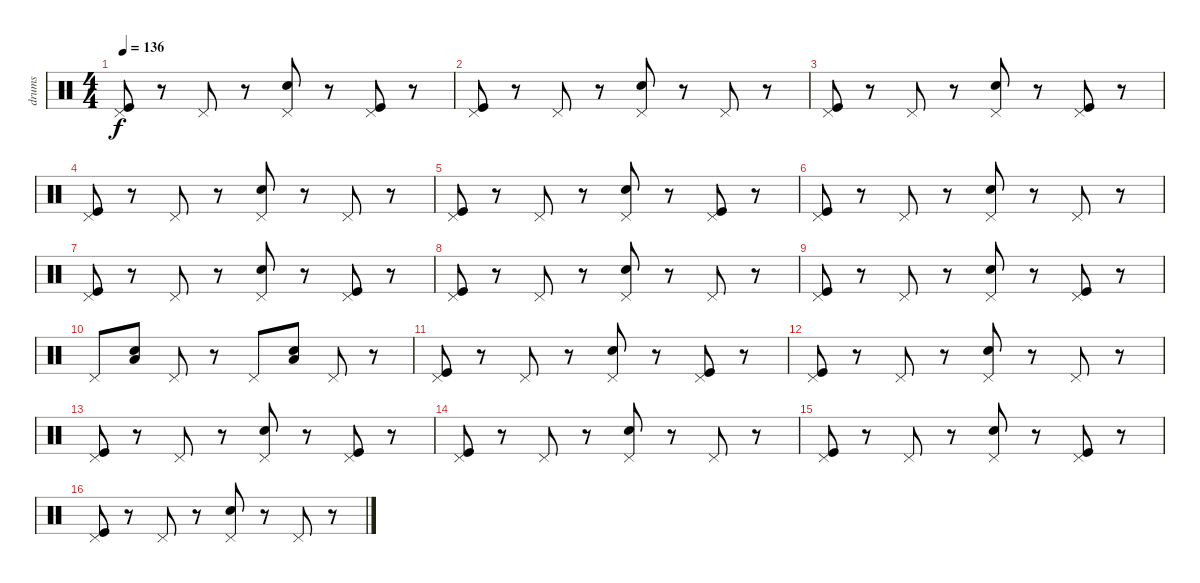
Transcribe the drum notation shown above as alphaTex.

\track ("drums" "drums") {instrument percussion}
\staff {score}
\articulation defaults
\ts (4 4)
\tempo 136
\clef neutral
\ks c
("Kick (hit)" "Pedal Hi-Hat (hit)").8{dy f} r.8 "Pedal Hi-Hat (hit)".8 r.8 ("Snare (hit) 2" "Pedal Hi-Hat (hit)").8 r.8 ("Kick (hit)" "Pedal Hi-Hat (hit)").8 r.8 |
("Kick (hit)" "Pedal Hi-Hat (hit)").8 r.8 "Pedal Hi-Hat (hit)".8 r.8 ("Snare (hit) 2" "Pedal Hi-Hat (hit)").8 r.8 "Pedal Hi-Hat (hit)".8 r.8 |
("Kick (hit)" "Pedal Hi-Hat (hit)").8 r.8 "Pedal Hi-Hat (hit)".8 r.8 ("Snare (hit) 2" "Pedal Hi-Hat (hit)").8 r.8 ("Kick (hit)" "Pedal Hi-Hat (hit)").8 r.8 |
("Kick (hit)" "Pedal Hi-Hat (hit)").8 r.8 "Pedal Hi-Hat (hit)".8 r.8 ("Snare (hit) 2" "Pedal Hi-Hat (hit)").8 r.8 "Pedal Hi-Hat (hit)".8 r.8 |
("Kick (hit)" "Pedal Hi-Hat (hit)").8 r.8 "Pedal Hi-Hat (hit)".8 r.8 ("Snare (hit) 2" "Pedal Hi-Hat (hit)").8 r.8 ("Kick (hit)" "Pedal Hi-Hat (hit)").8 r.8 |
("Kick (hit)" "Pedal Hi-Hat (hit)").8 r.8 "Pedal Hi-Hat (hit)".8 r.8 ("Snare (hit) 2" "Pedal Hi-Hat (hit)").8 r.8 "Pedal Hi-Hat (hit)".8 r.8 |
("Kick (hit)" "Pedal Hi-Hat (hit)").8 r.8 "Pedal Hi-Hat (hit)".8 r.8 ("Snare (hit) 2" "Pedal Hi-Hat (hit)").8 r.8 ("Kick (hit)" "Pedal Hi-Hat (hit)").8 r.8 |
("Kick (hit)" "Pedal Hi-Hat (hit)").8 r.8 "Pedal Hi-Hat (hit)".8 r.8 ("Snare (hit) 2" "Pedal Hi-Hat (hit)").8 r.8 "Pedal Hi-Hat (hit)".8 r.8 |
("Kick (hit)" "Pedal Hi-Hat (hit)").8 r.8 "Pedal Hi-Hat (hit)".8 r.8 ("Snare (hit) 2" "Pedal Hi-Hat (hit)").8 r.8 ("Kick (hit)" "Pedal Hi-Hat (hit)").8 r.8 |
"Pedal Hi-Hat (hit)".8 ("Snare (hit) 2" "Low Tom (hit)").8 "Pedal Hi-Hat (hit)".8 r.8 "Pedal Hi-Hat (hit)".8 ("Snare (hit) 2" "Low Tom (hit)").8 "Pedal Hi-Hat (hit)".8 r.8 |
("Kick (hit)" "Pedal Hi-Hat (hit)").8 r.8 "Pedal Hi-Hat (hit)".8 r.8 ("Snare (hit) 2" "Pedal Hi-Hat (hit)").8 r.8 ("Kick (hit)" "Pedal Hi-Hat (hit)").8 r.8 |
("Kick (hit)" "Pedal Hi-Hat (hit)").8 r.8 "Pedal Hi-Hat (hit)".8 r.8 ("Snare (hit) 2" "Pedal Hi-Hat (hit)").8 r.8 "Pedal Hi-Hat (hit)".8 r.8 |
("Kick (hit)" "Pedal Hi-Hat (hit)").8 r.8 "Pedal Hi-Hat (hit)".8 r.8 ("Snare (hit) 2" "Pedal Hi-Hat (hit)").8 r.8 ("Kick (hit)" "Pedal Hi-Hat (hit)").8 r.8 |
("Kick (hit)" "Pedal Hi-Hat (hit)").8 r.8 "Pedal Hi-Hat (hit)".8 r.8 ("Snare (hit) 2" "Pedal Hi-Hat (hit)").8 r.8 "Pedal Hi-Hat (hit)".8 r.8 |
("Kick (hit)" "Pedal Hi-Hat (hit)").8 r.8 "Pedal Hi-Hat (hit)".8 r.8 ("Snare (hit) 2" "Pedal Hi-Hat (hit)").8 r.8 ("Kick (hit)" "Pedal Hi-Hat (hit)").8 r.8 |
("Kick (hit)" "Pedal Hi-Hat (hit)").8 r.8 "Pedal Hi-Hat (hit)".8 r.8 ("Snare (hit) 2" "Pedal Hi-Hat (hit)").8 r.8 "Pedal Hi-Hat (hit)".8 r.8
